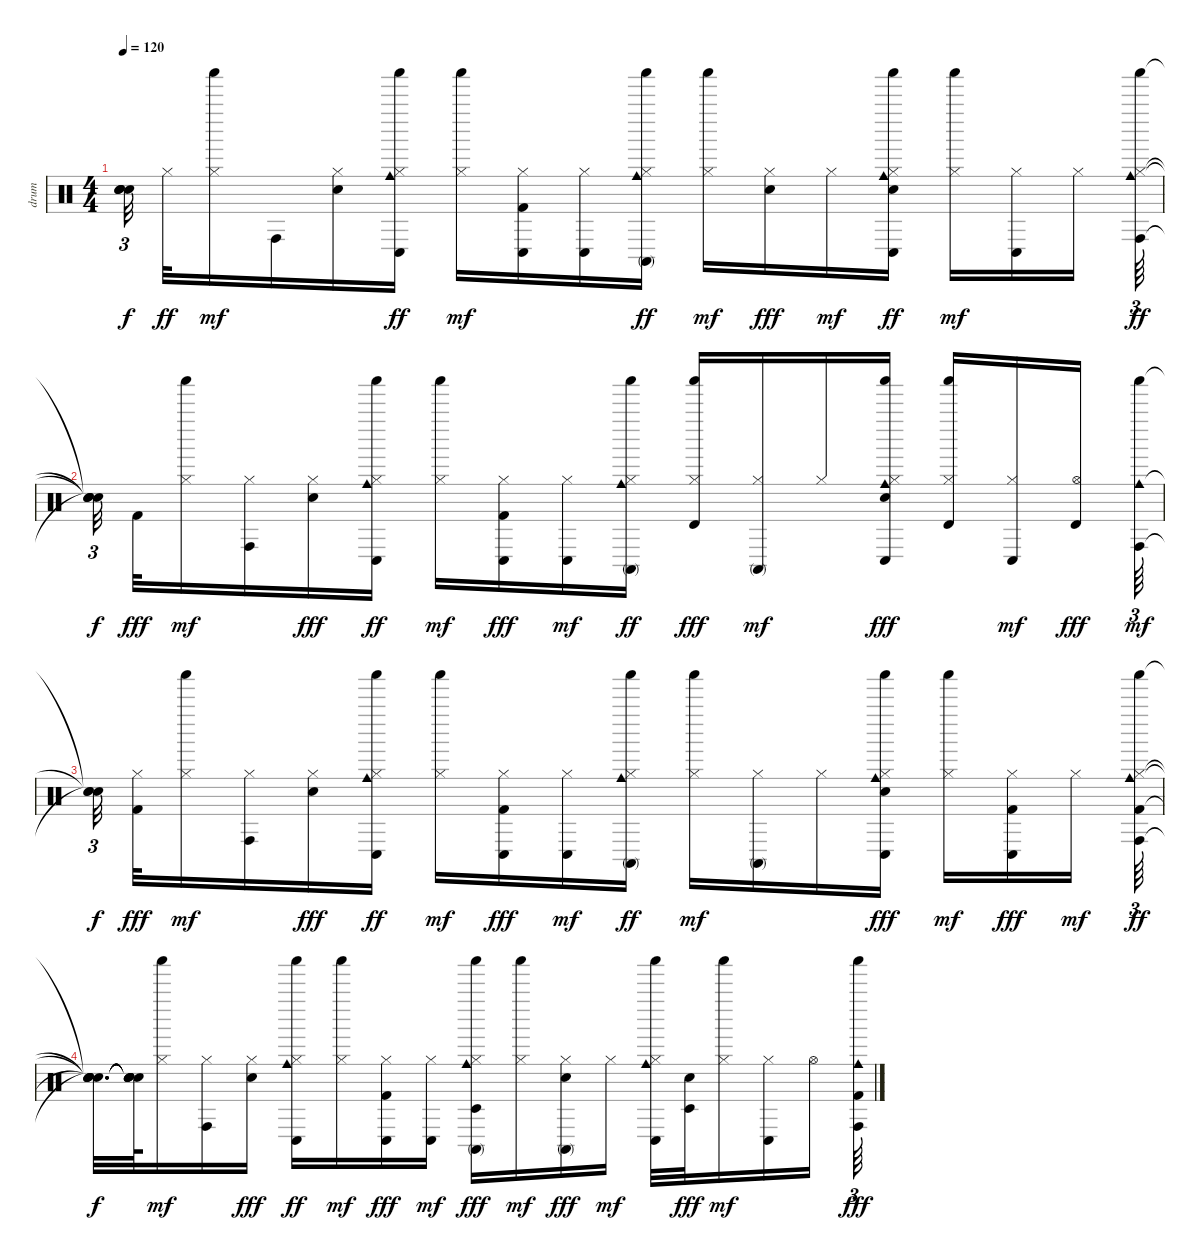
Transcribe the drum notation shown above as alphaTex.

\track ("drum" "drum") {instrument percussion}
\staff {score}
\articulation defaults
\ts (4 4)
\tempo 120
\clef neutral
\ks c
("Snare (hit)"{t} "Snare (hit)"{t} "Snare (hit)"{t} "Snare (hit)"{t}).32{tu (3 2) dy f beam splitsecondary} "Hi-Hat (closed)".32{dy ff} ("Shaker (hit)" "Hi-Hat (closed)").16{dy mf} "Conga high (hit)".16 ("Electric Snare (hit)" "Hi-Hat (closed)").16 ("Conga low (hit)" "Cowbell medium (hit)" "Shaker (hit)" "Hi-Hat (closed)").16{dy ff} ("Shaker (hit)" "Hi-Hat (closed)").16{dy mf} ("Conga low (hit)" "Kick (hit) 2" "Hi-Hat (closed)").16 ("Conga low (hit)" "Hi-Hat (closed)").16 ("Conga high (mute)" "Cowbell medium (hit)" "Shaker (hit)" "Hi-Hat (closed)").16{dy ff} ("Shaker (hit)" "Hi-Hat (closed)").16{dy mf} ("Hi-Hat (closed)" "Electric Snare (hit)").16{dy fff} "Hi-Hat (closed)".16{dy mf} ("Conga low (hit)" "Shaker (hit)" "Cowbell medium (hit)" "Electric Snare (hit)" "Hi-Hat (closed)").16{dy ff} ("Shaker (hit)" "Hi-Hat (closed)").16{dy mf} ("Conga low (hit)" "Hi-Hat (closed)").16 "Hi-Hat (closed)".16{beam splitsecondary} ("Conga high (hit)" "Shaker (hit)" "Cowbell medium (hit)" "Hi-Hat (closed)").64{tu (3 2) dy ff} |
("Snare (hit)"{t} "Snare (hit)"{t} "Snare (hit)"{t} "Snare (hit)"{t}).32{tu (3 2) dy f beam splitsecondary} "Kick (hit) 2".32{dy fff} ("Shaker (hit)" "Hi-Hat (closed)").16{dy mf} ("Conga high (hit)" "Hi-Hat (closed)").16 ("Hi-Hat (closed)" "Electric Snare (hit)").16{dy fff} ("Cowbell medium (hit)" "Conga low (hit)" "Shaker (hit)" "Hi-Hat (closed)").16{dy ff} ("Shaker (hit)" "Hi-Hat (closed)").16{dy mf} ("Conga low (hit)" "Hi-Hat (closed)" "Kick (hit) 2").16{dy fff} ("Conga low (hit)" "Hi-Hat (closed)").16{dy mf} ("Conga high (mute)" "Cowbell medium (hit)" "Shaker (hit)" "Hi-Hat (closed)").16{dy ff} ("Shaker (hit)" "Hi-Hat (closed)" "Timbale high (hit)").16{dy fff} ("Conga high (mute)" "Hi-Hat (closed)").16{dy mf} "Hi-Hat (closed)".16 ("Conga low (hit)" "Cowbell medium (hit)" "Shaker (hit)" "Hi-Hat (closed)" "Electric Snare (hit)").16{dy fff} ("Shaker (hit)" "Hi-Hat (closed)" "Timbale high (hit)").16 ("Hi-Hat (closed)" "Conga low (hit)").16{dy mf} ("Hi-Hat (open)" "Timbale high (hit)").16{dy fff beam splitsecondary} ("Conga high (hit)" "Shaker (hit)" "Cowbell medium (hit)").64{tu (3 2) dy mf} |
("Snare (hit)"{t} "Snare (hit)"{t} "Snare (hit)"{t}).32{tu (3 2) dy f beam splitsecondary} ("Hi-Hat (closed)" "Kick (hit) 2").32{dy fff} ("Shaker (hit)" "Hi-Hat (closed)").16{dy mf} ("Conga high (hit)" "Hi-Hat (closed)").16 ("Hi-Hat (closed)" "Electric Snare (hit)").16{dy fff} ("Conga low (hit)" "Cowbell medium (hit)" "Shaker (hit)" "Hi-Hat (closed)").16{dy ff} ("Shaker (hit)" "Hi-Hat (closed)").16{dy mf} ("Conga low (hit)" "Hi-Hat (closed)" "Kick (hit) 2").16{dy fff} ("Hi-Hat (closed)" "Conga low (hit)").16{dy mf} ("Conga high (mute)" "Cowbell medium (hit)" "Shaker (hit)" "Hi-Hat (closed)").16{dy ff} ("Shaker (hit)" "Hi-Hat (closed)").16{dy mf} ("Conga high (mute)" "Hi-Hat (closed)").16 "Hi-Hat (closed)".16 ("Conga low (hit)" "Shaker (hit)" "Cowbell medium (hit)" "Hi-Hat (closed)" "Electric Snare (hit)").16{dy fff} ("Shaker (hit)" "Hi-Hat (closed)").16{dy mf} ("Conga low (hit)" "Hi-Hat (closed)" "Kick (hit) 2").16{dy fff} "Hi-Hat (closed)".16{dy mf beam splitsecondary} ("Conga high (hit)" "Shaker (hit)" "Cowbell medium (hit)" "Kick (hit) 2" "Hi-Hat (closed)").64{tu (3 2) dy ff} |
("Snare (hit)"{t} "Snare (hit)"{t} "Snare (hit)"{t} "Snare (hit)"{t} "Snare (hit)"{t}).32{d dy f} ("Snare (hit)"{t} "Snare (hit)"{t} "Snare (hit)"{t} "Snare (hit)"{t} "Snare (hit)"{t}).64 ("Shaker (hit)" "Hi-Hat (closed)").16{dy mf} ("Conga high (hit)" "Hi-Hat (closed)").16 ("Hi-Hat (closed)" "Electric Snare (hit)").16{dy fff} ("Cowbell medium (hit)" "Conga low (hit)" "Shaker (hit)" "Hi-Hat (closed)").16{dy ff} ("Shaker (hit)" "Hi-Hat (closed)").16{dy mf} ("Conga low (hit)" "Hi-Hat (closed)" "Kick (hit) 2").16{dy fff} ("Conga low (hit)" "Hi-Hat (closed)").16{dy mf} ("Conga high (mute)" "Cowbell medium (hit)" "Shaker (hit)" "Hi-Hat (closed)" "Timbale low (hit)").16{dy fff} ("Shaker (hit)" "Hi-Hat (closed)").16{dy mf} ("Conga high (mute)" "Hi-Hat (closed)" "Electric Snare (hit)").16{dy fff} "Hi-Hat (closed)".16{dy mf} ("Conga low (hit)" "Shaker (hit)" "Hi-Hat (closed)" "Cowbell medium (hit)").32 ("Electric Snare (hit)" "Timbale low (hit)").32{dy fff} ("Shaker (hit)" "Hi-Hat (closed)").16{dy mf} ("Hi-Hat (closed)" "Conga low (hit)").16 "Hi-Hat (open)".16 ("Conga high (hit)" "Shaker (hit)" "Cowbell medium (hit)" "Kick (hit) 2").64{tu (3 2) dy fff}
